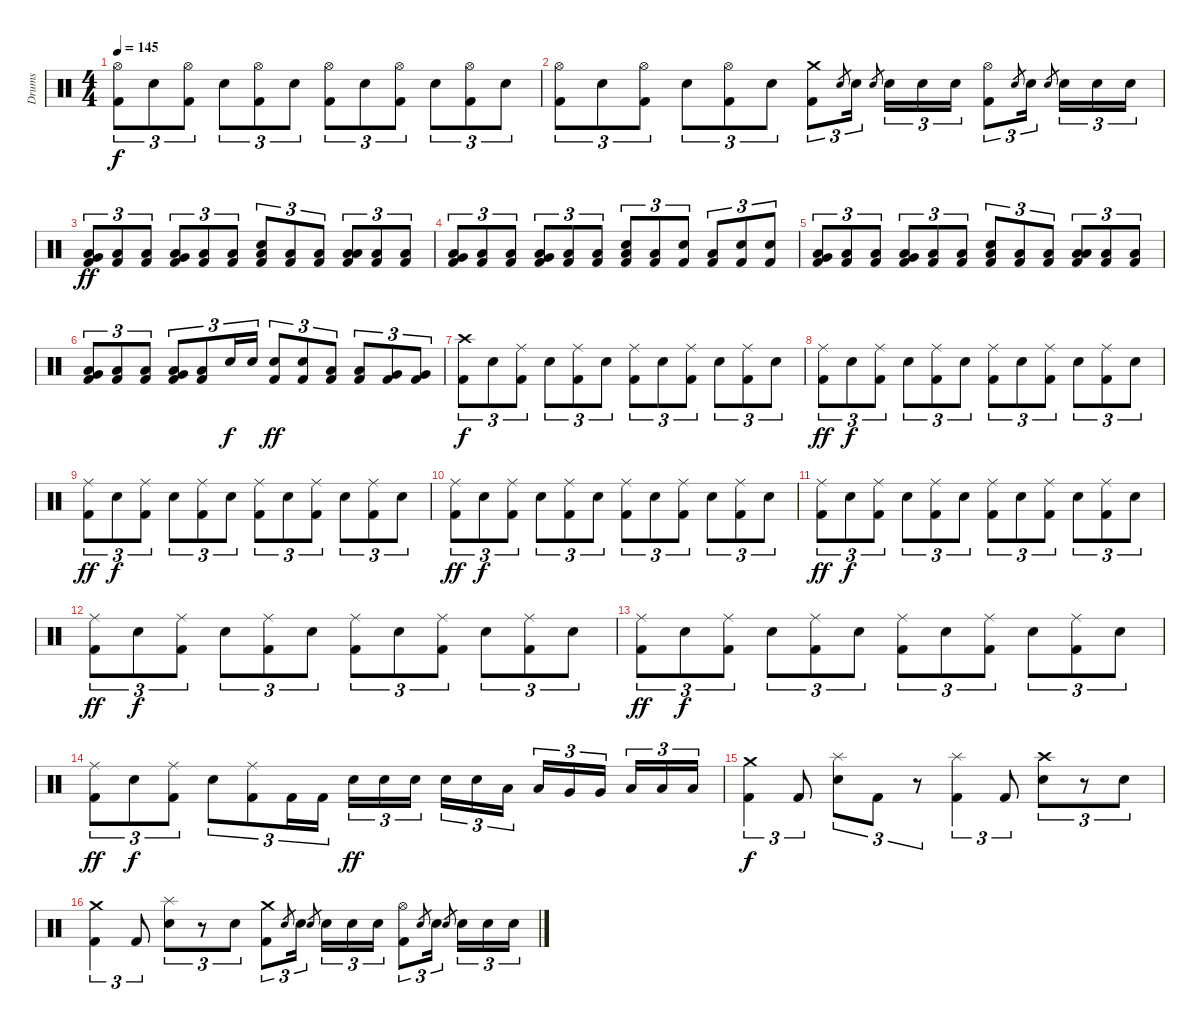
\track ("Drums" "Drums") {instrument percussion}
\staff {score}
\articulation defaults
\ts (4 4)
\tempo 145
\clef neutral
\ks c
("Hi-Hat (open)" "Kick (hit) 2").8{tu (3 2) dy f} "Electric Snare (hit)".8{tu (3 2)} ("Hi-Hat (open)" "Kick (hit) 2").8{tu (3 2)} "Electric Snare (hit)".8{tu (3 2)} ("Hi-Hat (open)" "Kick (hit) 2").8{tu (3 2)} "Electric Snare (hit)".8{tu (3 2)} ("Hi-Hat (open)" "Kick (hit) 2").8{tu (3 2)} "Electric Snare (hit)".8{tu (3 2)} ("Hi-Hat (open)" "Kick (hit) 2").8{tu (3 2)} "Electric Snare (hit)".8{tu (3 2)} ("Hi-Hat (open)" "Kick (hit) 2").8{tu (3 2)} "Electric Snare (hit)".8{tu (3 2)} |
("Hi-Hat (open)" "Kick (hit) 2").8{tu (3 2)} "Electric Snare (hit)".8{tu (3 2)} ("Hi-Hat (open)" "Kick (hit) 2").8{tu (3 2)} "Electric Snare (hit)".8{tu (3 2)} ("Hi-Hat (open)" "Kick (hit) 2").8{tu (3 2)} "Electric Snare (hit)".8{tu (3 2)} ("Crash medium (hit)" "Kick (hit) 2").8{tu (3 2)} "Electric Snare (hit)".8{gr} "Electric Snare (hit)".16{tu (3 2)} "Electric Snare (hit)".8{gr beam splitsecondary} "Electric Snare (hit)".16{tu (3 2)} "Electric Snare (hit)".16{tu (3 2)} "Electric Snare (hit)".16{tu (3 2)} ("Hi-Hat (open)" "Kick (hit) 2").8{tu (3 2)} "Electric Snare (hit)".8{gr} "Electric Snare (hit)".16{tu (3 2)} "Electric Snare (hit)".8{gr beam splitsecondary} "Electric Snare (hit)".16{tu (3 2)} "Electric Snare (hit)".16{tu (3 2)} "Electric Snare (hit)".16{tu (3 2)} |
("Low Tom (hit)" "Very Low Tom (hit)" "Kick (hit) 2").8{tu (3 2) dy ff} ("Low Floor Tom (hit)" "Kick (hit) 2").8{tu (3 2)} ("Low Floor Tom (hit)" "Kick (hit) 2").8{tu (3 2)} ("Low Floor Tom (hit)" "Very Low Tom (hit)" "Kick (hit) 2").8{tu (3 2)} ("Low Floor Tom (hit)" "Kick (hit) 2").8{tu (3 2)} ("Low Floor Tom (hit)" "Kick (hit) 2").8{tu (3 2)} ("Low Floor Tom (hit)" "Electric Snare (hit)" "Kick (hit) 2").8{tu (3 2)} ("Low Floor Tom (hit)" "Kick (hit) 2").8{tu (3 2)} ("Low Floor Tom (hit)" "Kick (hit) 2").8{tu (3 2)} ("Low Floor Tom (hit)" "Low Floor Tom (hit)" "Kick (hit) 2").8{tu (3 2)} ("Low Floor Tom (hit)" "Kick (hit) 2").8{tu (3 2)} ("Low Floor Tom (hit)" "Kick (hit) 2").8{tu (3 2)} |
("Low Tom (hit)" "Very Low Tom (hit)" "Kick (hit) 2").8{tu (3 2)} ("Low Floor Tom (hit)" "Kick (hit) 2").8{tu (3 2)} ("Low Floor Tom (hit)" "Kick (hit) 2").8{tu (3 2)} ("Low Floor Tom (hit)" "Very Low Tom (hit)" "Kick (hit) 2").8{tu (3 2)} ("Low Floor Tom (hit)" "Kick (hit) 2").8{tu (3 2)} ("Low Floor Tom (hit)" "Kick (hit) 2").8{tu (3 2)} ("Low Floor Tom (hit)" "Electric Snare (hit)" "Kick (hit) 2").8{tu (3 2)} ("Low Floor Tom (hit)" "Kick (hit) 2").8{tu (3 2)} ("Electric Snare (hit)" "Kick (hit) 2").8{tu (3 2)} ("Low Floor Tom (hit)" "Kick (hit) 2").8{tu (3 2)} ("Electric Snare (hit)" "Kick (hit) 2").8{tu (3 2)} ("Electric Snare (hit)" "Kick (hit) 2").8{tu (3 2)} |
("Low Tom (hit)" "Very Low Tom (hit)" "Kick (hit) 2").8{tu (3 2)} ("Low Floor Tom (hit)" "Kick (hit) 2").8{tu (3 2)} ("Low Floor Tom (hit)" "Kick (hit) 2").8{tu (3 2)} ("Low Floor Tom (hit)" "Very Low Tom (hit)" "Kick (hit) 2").8{tu (3 2)} ("Low Floor Tom (hit)" "Kick (hit) 2").8{tu (3 2)} ("Low Floor Tom (hit)" "Kick (hit) 2").8{tu (3 2)} ("Low Floor Tom (hit)" "Electric Snare (hit)" "Kick (hit) 2").8{tu (3 2)} ("Low Floor Tom (hit)" "Kick (hit) 2").8{tu (3 2)} ("Low Floor Tom (hit)" "Kick (hit) 2").8{tu (3 2)} ("Low Floor Tom (hit)" "Low Floor Tom (hit)" "Kick (hit) 2").8{tu (3 2)} ("Low Floor Tom (hit)" "Kick (hit) 2").8{tu (3 2)} ("Low Floor Tom (hit)" "Kick (hit) 2").8{tu (3 2)} |
("Low Tom (hit)" "Very Low Tom (hit)" "Kick (hit) 2").8{tu (3 2)} ("Low Floor Tom (hit)" "Kick (hit) 2").8{tu (3 2)} ("Low Floor Tom (hit)" "Kick (hit) 2").8{tu (3 2)} ("Low Floor Tom (hit)" "Very Low Tom (hit)" "Kick (hit) 2").8{tu (3 2)} ("Low Floor Tom (hit)" "Kick (hit) 2").8{tu (3 2)} "Electric Snare (hit)".16{tu (3 2) dy f} "Electric Snare (hit)".16{tu (3 2)} ("Electric Snare (hit)" "Kick (hit) 2").8{tu (3 2) dy ff} ("Electric Snare (hit)" "Kick (hit) 2").8{tu (3 2)} ("Low Tom (hit)" "Kick (hit) 2").8{tu (3 2)} ("Low Tom (hit)" "Kick (hit) 2").8{tu (3 2)} ("Very Low Tom (hit)" "Kick (hit) 2").8{tu (3 2)} ("Very Low Tom (hit)" "Kick (hit) 2").8{tu (3 2)} |
("Crash high (hit)" "Kick (hit) 2").8{tu (3 2) dy f} "Electric Snare (hit)".8{tu (3 2)} ("Ride (middle)" "Kick (hit) 2").8{tu (3 2)} "Electric Snare (hit)".8{tu (3 2)} ("Ride (middle)" "Kick (hit) 2").8{tu (3 2)} "Electric Snare (hit)".8{tu (3 2)} ("Ride (middle)" "Kick (hit) 2").8{tu (3 2)} "Electric Snare (hit)".8{tu (3 2)} ("Ride (middle)" "Kick (hit) 2").8{tu (3 2)} "Electric Snare (hit)".8{tu (3 2)} ("Ride (middle)" "Kick (hit) 2").8{tu (3 2)} "Electric Snare (hit)".8{tu (3 2)} |
("Ride (middle)" "Kick (hit) 2").8{tu (3 2) dy ff} "Electric Snare (hit)".8{tu (3 2) dy f} ("Ride (middle)" "Kick (hit) 2").8{tu (3 2)} "Electric Snare (hit)".8{tu (3 2)} ("Ride (middle)" "Kick (hit) 2").8{tu (3 2)} "Electric Snare (hit)".8{tu (3 2)} ("Ride (middle)" "Kick (hit) 2").8{tu (3 2)} "Electric Snare (hit)".8{tu (3 2)} ("Ride (middle)" "Kick (hit) 2").8{tu (3 2)} "Electric Snare (hit)".8{tu (3 2)} ("Ride (middle)" "Kick (hit) 2").8{tu (3 2)} "Electric Snare (hit)".8{tu (3 2)} |
("Ride (middle)" "Kick (hit) 2").8{tu (3 2) dy ff} "Electric Snare (hit)".8{tu (3 2) dy f} ("Ride (middle)" "Kick (hit) 2").8{tu (3 2)} "Electric Snare (hit)".8{tu (3 2)} ("Ride (middle)" "Kick (hit) 2").8{tu (3 2)} "Electric Snare (hit)".8{tu (3 2)} ("Ride (middle)" "Kick (hit) 2").8{tu (3 2)} "Electric Snare (hit)".8{tu (3 2)} ("Ride (middle)" "Kick (hit) 2").8{tu (3 2)} "Electric Snare (hit)".8{tu (3 2)} ("Ride (middle)" "Kick (hit) 2").8{tu (3 2)} "Electric Snare (hit)".8{tu (3 2)} |
("Ride (middle)" "Kick (hit) 2").8{tu (3 2) dy ff} "Electric Snare (hit)".8{tu (3 2) dy f} ("Ride (middle)" "Kick (hit) 2").8{tu (3 2)} "Electric Snare (hit)".8{tu (3 2)} ("Ride (middle)" "Kick (hit) 2").8{tu (3 2)} "Electric Snare (hit)".8{tu (3 2)} ("Ride (middle)" "Kick (hit) 2").8{tu (3 2)} "Electric Snare (hit)".8{tu (3 2)} ("Ride (middle)" "Kick (hit) 2").8{tu (3 2)} "Electric Snare (hit)".8{tu (3 2)} ("Ride (middle)" "Kick (hit) 2").8{tu (3 2)} "Electric Snare (hit)".8{tu (3 2)} |
("Ride (middle)" "Kick (hit) 2").8{tu (3 2) dy ff} "Electric Snare (hit)".8{tu (3 2) dy f} ("Ride (middle)" "Kick (hit) 2").8{tu (3 2)} "Electric Snare (hit)".8{tu (3 2)} ("Ride (middle)" "Kick (hit) 2").8{tu (3 2)} "Electric Snare (hit)".8{tu (3 2)} ("Ride (middle)" "Kick (hit) 2").8{tu (3 2)} "Electric Snare (hit)".8{tu (3 2)} ("Ride (middle)" "Kick (hit) 2").8{tu (3 2)} "Electric Snare (hit)".8{tu (3 2)} ("Ride (middle)" "Kick (hit) 2").8{tu (3 2)} "Electric Snare (hit)".8{tu (3 2)} |
("Ride (middle)" "Kick (hit) 2").8{tu (3 2) dy ff} "Electric Snare (hit)".8{tu (3 2) dy f} ("Ride (middle)" "Kick (hit) 2").8{tu (3 2)} "Electric Snare (hit)".8{tu (3 2)} ("Ride (middle)" "Kick (hit) 2").8{tu (3 2)} "Electric Snare (hit)".8{tu (3 2)} ("Ride (middle)" "Kick (hit) 2").8{tu (3 2)} "Electric Snare (hit)".8{tu (3 2)} ("Ride (middle)" "Kick (hit) 2").8{tu (3 2)} "Electric Snare (hit)".8{tu (3 2)} ("Ride (middle)" "Kick (hit) 2").8{tu (3 2)} "Electric Snare (hit)".8{tu (3 2)} |
("Ride (middle)" "Kick (hit) 2").8{tu (3 2) dy ff} "Electric Snare (hit)".8{tu (3 2) dy f} ("Ride (middle)" "Kick (hit) 2").8{tu (3 2)} "Electric Snare (hit)".8{tu (3 2)} ("Ride (middle)" "Kick (hit) 2").8{tu (3 2)} "Electric Snare (hit)".8{tu (3 2)} ("Ride (middle)" "Kick (hit) 2").8{tu (3 2)} "Electric Snare (hit)".8{tu (3 2)} ("Ride (middle)" "Kick (hit) 2").8{tu (3 2)} "Electric Snare (hit)".8{tu (3 2)} ("Ride (middle)" "Kick (hit) 2").8{tu (3 2)} "Electric Snare (hit)".8{tu (3 2)} |
("Ride (middle)" "Kick (hit) 2").8{tu (3 2) dy ff} "Electric Snare (hit)".8{tu (3 2) dy f} ("Ride (middle)" "Kick (hit) 2").8{tu (3 2)} "Electric Snare (hit)".8{tu (3 2)} ("Ride (middle)" "Kick (hit) 2").8{tu (3 2)} "Kick (hit) 2".16{tu (3 2)} "Kick (hit) 2".16{tu (3 2)} "Electric Snare (hit)".16{tu (3 2) dy ff} "Electric Snare (hit)".16{tu (3 2)} "Electric Snare (hit)".16{tu (3 2) beam splitsecondary} "Electric Snare (hit)".16{tu (3 2)} "Electric Snare (hit)".16{tu (3 2)} "Low Tom (hit)".16{tu (3 2)} "Low Tom (hit)".16{tu (3 2)} "Very Low Tom (hit)".16{tu (3 2)} "Very Low Tom (hit)".16{tu (3 2) beam splitsecondary} "Low Floor Tom (hit)".16{tu (3 2)} "Low Floor Tom (hit)".16{tu (3 2)} "Low Floor Tom (hit)".16{tu (3 2)} |
("Crash medium (hit)" "Kick (hit) 2").4{tu (3 2) dy f} "Kick (hit) 2".8{tu (3 2)} ("Splash (hit)" "Electric Snare (hit)").8{tu (3 2)} "Kick (hit) 2".8{tu (3 2)} r.8{tu (3 2)} ("Splash (hit)" "Kick (hit) 2").4{tu (3 2)} "Kick (hit) 2".8{tu (3 2)} ("Crash high (hit)" "Electric Snare (hit)").8{tu (3 2)} r.8{tu (3 2)} "Electric Snare (hit)".8{tu (3 2)} |
("Crash medium (hit)" "Kick (hit) 2").4{tu (3 2)} "Kick (hit) 2".8{tu (3 2)} ("Splash (hit)" "Electric Snare (hit)").8{tu (3 2)} r.8{tu (3 2)} "Electric Snare (hit)".8{tu (3 2)} ("Crash medium (hit)" "Kick (hit) 2").8{tu (3 2)} "Electric Snare (hit)".8{gr} "Electric Snare (hit)".16{tu (3 2)} "Electric Snare (hit)".8{gr beam splitsecondary} "Electric Snare (hit)".16{tu (3 2)} "Electric Snare (hit)".16{tu (3 2)} "Electric Snare (hit)".16{tu (3 2)} ("Hi-Hat (open)" "Kick (hit) 2").8{tu (3 2)} "Electric Snare (hit)".8{gr} "Electric Snare (hit)".16{tu (3 2)} "Electric Snare (hit)".8{gr beam splitsecondary} "Electric Snare (hit)".16{tu (3 2)} "Electric Snare (hit)".16{tu (3 2)} "Electric Snare (hit)".16{tu (3 2)}
